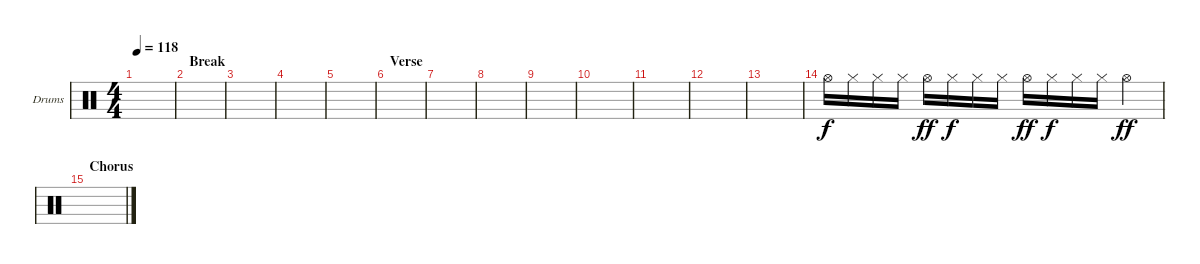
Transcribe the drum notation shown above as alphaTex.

\defaultSystemsLayout 4
\bracketExtendMode groupsimilarinstruments
\firstSystemTrackNameOrientation horizontal
\otherSystemsTrackNameOrientation horizontal
\track ("Drumkit" "Drums") {instrument percussion}
\staff {score}
\articulation defaults
\ts (4 4)
\tempo 118
\clef neutral
\scale
0.333333
\ks c
|
\section ("" "Break")
\scale
0.333333 |
\scale
0.333333 |
\scale
0.333333 |
\scale
0.333333 |
\section ("" "Verse")
\scale
0.333333 |
\scale
0.333333 |
\scale
0.333333 |
\scale
0.333333 |
\scale
0.333333 |
\scale
0.333333 |
\scale
0.333333 |
\scale
0.333333 |
\scale
0.333333 "Hi-Hat (open)".16 "Hi-Hat (closed)".16{dy f} "Hi-Hat (closed)".16 "Hi-Hat (closed)".16 "Hi-Hat (open)".16{dy ff} "Hi-Hat (closed)".16{dy f} "Hi-Hat (closed)".16 "Hi-Hat (closed)".16 "Hi-Hat (open)".16{dy ff} "Hi-Hat (closed)".16{dy f} "Hi-Hat (closed)".16 "Hi-Hat (closed)".16 "Hi-Hat (open)".4{dy ff} |
\section ("" "Chorus")
\scale
0.333333 |
\scale
0.333333
